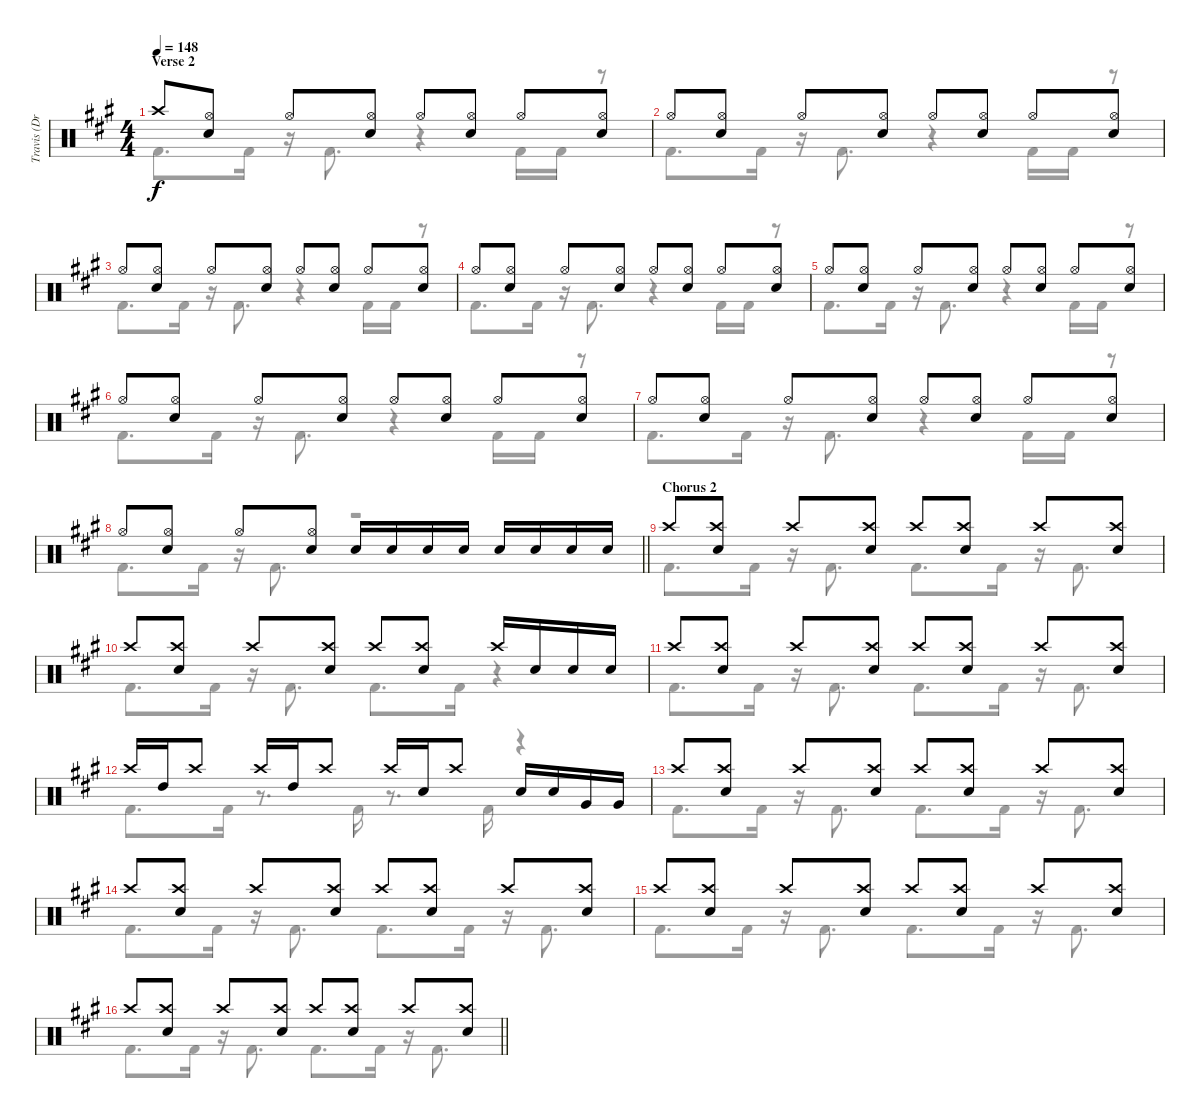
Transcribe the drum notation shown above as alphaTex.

\track ("Travis (Drums)" "Travis (Dr") {instrument percussion}
\staff {score}
\articulation defaults
\voice
\ts (4 4)
\section ("" "Verse 2")
\tempo 148
\clef neutral
\ks a "Crash high (hit)".8{dy f}
("Electric Snare (hit)" "Hi-Hat (open)").8 "Hi-Hat (open)".8 ("Electric Snare (hit)" "Hi-Hat (open)").8 "Hi-Hat (open)".8 ("Electric Snare (hit)" "Hi-Hat (open)").8 "Hi-Hat (open)".8 ("Electric Snare (hit)" "Hi-Hat (open)").8 |
"Hi-Hat (open)".8 ("Electric Snare (hit)" "Hi-Hat (open)").8 "Hi-Hat (open)".8 ("Electric Snare (hit)" "Hi-Hat (open)").8 "Hi-Hat (open)".8 ("Electric Snare (hit)" "Hi-Hat (open)").8 "Hi-Hat (open)".8 ("Electric Snare (hit)" "Hi-Hat (open)").8 |
"Hi-Hat (open)".8 ("Electric Snare (hit)" "Hi-Hat (open)").8 "Hi-Hat (open)".8 ("Electric Snare (hit)" "Hi-Hat (open)").8 "Hi-Hat (open)".8 ("Electric Snare (hit)" "Hi-Hat (open)").8 "Hi-Hat (open)".8 ("Electric Snare (hit)" "Hi-Hat (open)").8 |
"Hi-Hat (open)".8 ("Electric Snare (hit)" "Hi-Hat (open)").8 "Hi-Hat (open)".8 ("Electric Snare (hit)" "Hi-Hat (open)").8 "Hi-Hat (open)".8 ("Electric Snare (hit)" "Hi-Hat (open)").8 "Hi-Hat (open)".8 ("Electric Snare (hit)" "Hi-Hat (open)").8 |
"Hi-Hat (open)".8 ("Electric Snare (hit)" "Hi-Hat (open)").8 "Hi-Hat (open)".8 ("Electric Snare (hit)" "Hi-Hat (open)").8 "Hi-Hat (open)".8 ("Electric Snare (hit)" "Hi-Hat (open)").8 "Hi-Hat (open)".8 ("Electric Snare (hit)" "Hi-Hat (open)").8 |
"Hi-Hat (open)".8 ("Electric Snare (hit)" "Hi-Hat (open)").8 "Hi-Hat (open)".8 ("Electric Snare (hit)" "Hi-Hat (open)").8 "Hi-Hat (open)".8 ("Electric Snare (hit)" "Hi-Hat (open)").8 "Hi-Hat (open)".8 ("Electric Snare (hit)" "Hi-Hat (open)").8 |
"Hi-Hat (open)".8 ("Electric Snare (hit)" "Hi-Hat (open)").8 "Hi-Hat (open)".8 ("Electric Snare (hit)" "Hi-Hat (open)").8 "Hi-Hat (open)".8 ("Electric Snare (hit)" "Hi-Hat (open)").8 "Hi-Hat (open)".8 ("Electric Snare (hit)" "Hi-Hat (open)").8 |
\barLineRight lightlight "Hi-Hat (open)".8
("Electric Snare (hit)" "Hi-Hat (open)").8 "Hi-Hat (open)".8 ("Electric Snare (hit)" "Hi-Hat (open)").8 "Electric Snare (hit)".16 "Electric Snare (hit)".16 "Electric Snare (hit)".16 "Electric Snare (hit)".16 "Electric Snare (hit)".16 "Electric Snare (hit)".16 "Electric Snare (hit)".16 "Electric Snare (hit)".16 |
\section ("" "Chorus 2")
"Crash high (hit)".8 ("Crash high (hit)" "Electric Snare (hit)").8 "Crash high (hit)".8 ("Crash high (hit)" "Electric Snare (hit)").8 "Crash high (hit)".8 ("Crash high (hit)" "Electric Snare (hit)").8 "Crash high (hit)".8 ("Crash high (hit)" "Electric Snare (hit)").8 |
"Crash high (hit)".8 ("Crash high (hit)" "Electric Snare (hit)").8 "Crash high (hit)".8 ("Crash high (hit)" "Electric Snare (hit)").8 "Crash high (hit)".8 ("Crash high (hit)" "Electric Snare (hit)").8 "Crash high (hit)".16 "Electric Snare (hit)".16 "Electric Snare (hit)".16 "Electric Snare (hit)".16 |
"Crash high (hit)".8 ("Crash high (hit)" "Electric Snare (hit)").8 "Crash high (hit)".8 ("Crash high (hit)" "Electric Snare (hit)").8 "Crash high (hit)".8 ("Crash high (hit)" "Electric Snare (hit)").8 "Crash high (hit)".8 ("Crash high (hit)" "Electric Snare (hit)").8 |
"Crash high (hit)".16 "High Tom (hit)".16 "Crash high (hit)".8 "Crash high (hit)".16 "High Tom (hit)".16 "Crash high (hit)".8 "Crash high (hit)".16 "Electric Snare (hit)".16 "Crash high (hit)".8 "Electric Snare (hit)".16 "Electric Snare (hit)".16 "Very Low Tom (hit)".16 "Very Low Tom (hit)".16 |
"Crash high (hit)".8 ("Crash high (hit)" "Electric Snare (hit)").8 "Crash high (hit)".8 ("Crash high (hit)" "Electric Snare (hit)").8 "Crash high (hit)".8 ("Crash high (hit)" "Electric Snare (hit)").8 "Crash high (hit)".8 ("Crash high (hit)" "Electric Snare (hit)").8 |
"Crash high (hit)".8 ("Crash high (hit)" "Electric Snare (hit)").8 "Crash high (hit)".8 ("Crash high (hit)" "Electric Snare (hit)").8 "Crash high (hit)".8 ("Crash high (hit)" "Electric Snare (hit)").8 "Crash high (hit)".8 ("Crash high (hit)" "Electric Snare (hit)").8 |
"Crash high (hit)".8 ("Crash high (hit)" "Electric Snare (hit)").8 "Crash high (hit)".8 ("Crash high (hit)" "Electric Snare (hit)").8 "Crash high (hit)".8 ("Crash high (hit)" "Electric Snare (hit)").8 "Crash high (hit)".8 ("Crash high (hit)" "Electric Snare (hit)").8 |
\barLineRight lightlight "Crash high (hit)".8
("Crash high (hit)" "Electric Snare (hit)").8 "Crash high (hit)".8 ("Crash high (hit)" "Electric Snare (hit)").8 "Crash high (hit)".8 ("Crash high (hit)" "Electric Snare (hit)").8 "Crash high (hit)".8 ("Crash high (hit)" "Electric Snare (hit)").8
\voice
\clef neutral
\ottava regular
\simile none
\ks a "Kick (hit) 2".8{d dy f} "Kick (hit) 2".16
r.16 "Kick (hit) 2".8{d} r.4 "Kick (hit) 2".16 "Kick (hit) 2".16 r.8 |
"Kick (hit) 2".8{d} "Kick (hit) 2".16 r.16 "Kick (hit) 2".8{d} r.4 "Kick (hit) 2".16 "Kick (hit) 2".16 r.8 |
"Kick (hit) 2".8{d} "Kick (hit) 2".16 r.16 "Kick (hit) 2".8{d} r.4 "Kick (hit) 2".16 "Kick (hit) 2".16 r.8 |
"Kick (hit) 2".8{d} "Kick (hit) 2".16 r.16 "Kick (hit) 2".8{d} r.4 "Kick (hit) 2".16 "Kick (hit) 2".16 r.8 |
"Kick (hit) 2".8{d} "Kick (hit) 2".16 r.16 "Kick (hit) 2".8{d} r.4 "Kick (hit) 2".16 "Kick (hit) 2".16 r.8 |
"Kick (hit) 2".8{d} "Kick (hit) 2".16 r.16 "Kick (hit) 2".8{d} r.4 "Kick (hit) 2".16 "Kick (hit) 2".16 r.8 |
"Kick (hit) 2".8{d} "Kick (hit) 2".16 r.16 "Kick (hit) 2".8{d} r.4 "Kick (hit) 2".16 "Kick (hit) 2".16 r.8 |
\barLineRight lightlight "Kick (hit) 2".8{d} "Kick (hit) 2".16
r.16 "Kick (hit) 2".8{d} r.2 |
"Kick (hit) 2".8{d} "Kick (hit) 2".16 r.16 "Kick (hit) 2".8{d} "Kick (hit) 2".8{d} "Kick (hit) 2".16 r.16 "Kick (hit) 2".8{d} |
"Kick (hit) 2".8{d} "Kick (hit) 2".16 r.16 "Kick (hit) 2".8{d} "Kick (hit) 2".8{d} "Kick (hit) 2".16 r.4 |
"Kick (hit) 2".8{d} "Kick (hit) 2".16 r.16 "Kick (hit) 2".8{d} "Kick (hit) 2".8{d} "Kick (hit) 2".16 r.16 "Kick (hit) 2".8{d} |
"Kick (hit) 2".8{d} "Kick (hit) 2".16 r.8{d} "Kick (hit) 2".16 r.8{d} "Kick (hit) 2".16 r.4 |
"Kick (hit) 2".8{d} "Kick (hit) 2".16 r.16 "Kick (hit) 2".8{d} "Kick (hit) 2".8{d} "Kick (hit) 2".16 r.16 "Kick (hit) 2".8{d} |
"Kick (hit) 2".8{d} "Kick (hit) 2".16 r.16 "Kick (hit) 2".8{d} "Kick (hit) 2".8{d} "Kick (hit) 2".16 r.16 "Kick (hit) 2".8{d} |
"Kick (hit) 2".8{d} "Kick (hit) 2".16 r.16 "Kick (hit) 2".8{d} "Kick (hit) 2".8{d} "Kick (hit) 2".16 r.16 "Kick (hit) 2".8{d} |
\barLineRight lightlight "Kick (hit) 2".8{d} "Kick (hit) 2".16
r.16 "Kick (hit) 2".8{d} "Kick (hit) 2".8{d} "Kick (hit) 2".16 r.16 "Kick (hit) 2".8{d}
